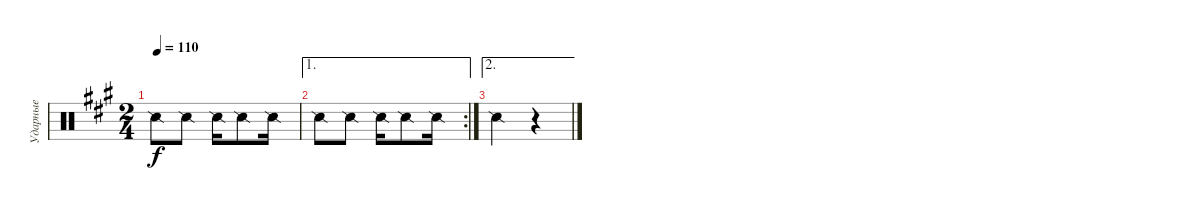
\track ("Ударные" "Ударные") {instrument percussion}
\staff {score}
\articulation defaults
\ts (2 4)
\tempo 110
\clef neutral
\ks a "Snare (side stick) 2".8{dy f} "Snare (side stick) 2".8 "Snare (side stick) 2".16 "Snare (side stick) 2".8 "Snare (side stick) 2".16
|
\ae 1
\rc 2 "Snare (side stick) 2".8 "Snare (side stick) 2".8 "Snare (side stick) 2".16 "Snare (side stick) 2".8 "Snare (side stick) 2".16
|
\ae 2 "Snare (side stick) 2".4
r.4
